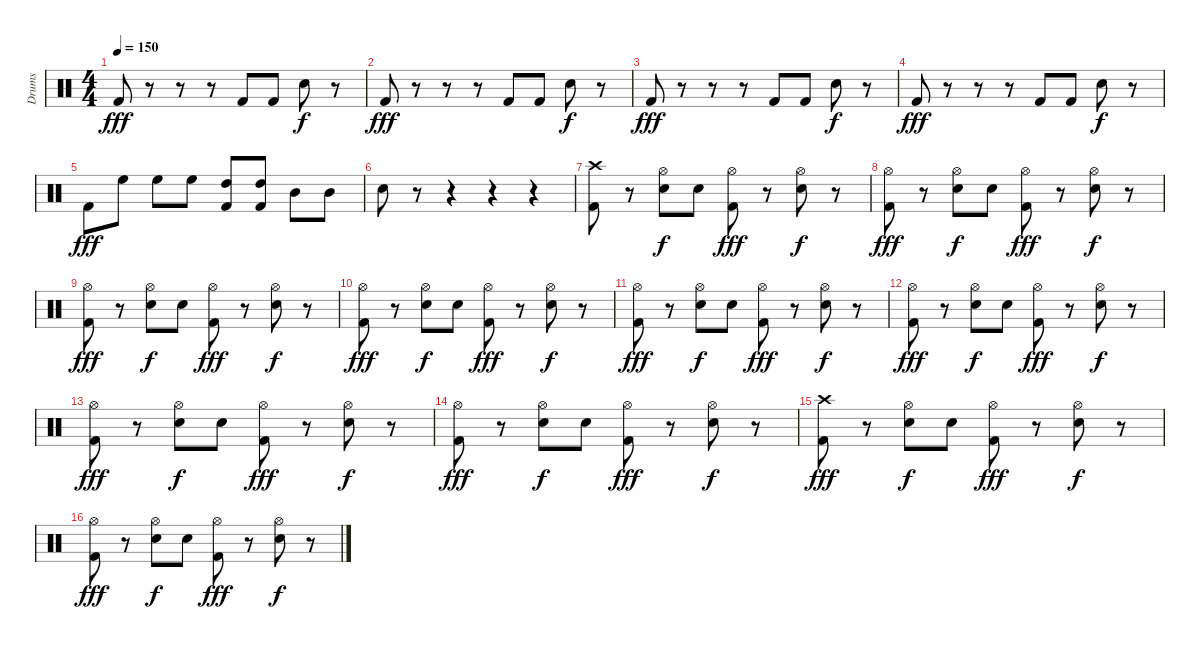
\track ("Drums" "Drums") {instrument percussion}
\staff {score}
\articulation defaults
\ts (4 4)
\tempo 150
\clef neutral
\ks c "Kick (hit) 2".8{dy fff}
r.8 r.8 r.8 "Kick (hit) 2".8 "Kick (hit) 2".8 "Snare (hit) 2".8{dy f} r.8 |
"Kick (hit) 2".8{dy fff} r.8 r.8 r.8 "Kick (hit) 2".8 "Kick (hit) 2".8 "Snare (hit) 2".8{dy f} r.8 |
"Kick (hit) 2".8{dy fff} r.8 r.8 r.8 "Kick (hit) 2".8 "Kick (hit) 2".8 "Snare (hit) 2".8{dy f} r.8 |
"Kick (hit) 2".8{dy fff} r.8 r.8 r.8 "Kick (hit) 2".8 "Kick (hit) 2".8 "Snare (hit) 2".8{dy f} r.8 |
"Kick (hit) 2".8{dy fff} "High Floor Tom (hit)".8 "High Floor Tom (hit)".8 "High Floor Tom (hit)".8 ("High Tom (hit)" "Kick (hit) 2").8 ("High Tom (hit)" "Kick (hit) 2").8 "Mid Tom (hit)".8 "Mid Tom (hit)".8 |
"Snare (hit) 2".8 r.8 r.4 r.4 r.4 |
("Crash high (hit)" "Kick (hit) 2").8 r.8 ("Hi-Hat (open)" "Snare (hit) 2").8{dy f} "Snare (hit) 2".8 ("Hi-Hat (open)" "Kick (hit) 2").8{dy fff} r.8 ("Hi-Hat (open)" "Snare (hit) 2").8{dy f} r.8 |
("Hi-Hat (open)" "Kick (hit) 2").8{dy fff} r.8 ("Hi-Hat (open)" "Snare (hit) 2").8{dy f} "Snare (hit) 2".8 ("Hi-Hat (open)" "Kick (hit) 2").8{dy fff} r.8 ("Hi-Hat (open)" "Snare (hit) 2").8{dy f} r.8 |
("Hi-Hat (open)" "Kick (hit) 2").8{dy fff} r.8 ("Hi-Hat (open)" "Snare (hit) 2").8{dy f} "Snare (hit) 2".8 ("Hi-Hat (open)" "Kick (hit) 2").8{dy fff} r.8 ("Hi-Hat (open)" "Snare (hit) 2").8{dy f} r.8 |
("Hi-Hat (open)" "Kick (hit) 2").8{dy fff} r.8 ("Hi-Hat (open)" "Snare (hit) 2").8{dy f} "Snare (hit) 2".8 ("Hi-Hat (open)" "Kick (hit) 2").8{dy fff} r.8 ("Hi-Hat (open)" "Snare (hit) 2").8{dy f} r.8 |
("Hi-Hat (open)" "Kick (hit) 2").8{dy fff} r.8 ("Hi-Hat (open)" "Snare (hit) 2").8{dy f} "Snare (hit) 2".8 ("Hi-Hat (open)" "Kick (hit) 2").8{dy fff} r.8 ("Hi-Hat (open)" "Snare (hit) 2").8{dy f} r.8 |
("Hi-Hat (open)" "Kick (hit) 2").8{dy fff} r.8 ("Hi-Hat (open)" "Snare (hit) 2").8{dy f} "Snare (hit) 2".8 ("Hi-Hat (open)" "Kick (hit) 2").8{dy fff} r.8 ("Hi-Hat (open)" "Snare (hit) 2").8{dy f} r.8 |
("Hi-Hat (open)" "Kick (hit) 2").8{dy fff} r.8 ("Hi-Hat (open)" "Snare (hit) 2").8{dy f} "Snare (hit) 2".8 ("Hi-Hat (open)" "Kick (hit) 2").8{dy fff} r.8 ("Hi-Hat (open)" "Snare (hit) 2").8{dy f} r.8 |
("Hi-Hat (open)" "Kick (hit) 2").8{dy fff} r.8 ("Hi-Hat (open)" "Snare (hit) 2").8{dy f} "Snare (hit) 2".8 ("Hi-Hat (open)" "Kick (hit) 2").8{dy fff} r.8 ("Hi-Hat (open)" "Snare (hit) 2").8{dy f} r.8 |
("Crash high (hit)" "Kick (hit) 2").8{dy fff} r.8 ("Hi-Hat (open)" "Snare (hit) 2").8{dy f} "Snare (hit) 2".8 ("Hi-Hat (open)" "Kick (hit) 2").8{dy fff} r.8 ("Hi-Hat (open)" "Snare (hit) 2").8{dy f} r.8 |
("Hi-Hat (open)" "Kick (hit) 2").8{dy fff} r.8 ("Hi-Hat (open)" "Snare (hit) 2").8{dy f} "Snare (hit) 2".8 ("Hi-Hat (open)" "Kick (hit) 2").8{dy fff} r.8 ("Hi-Hat (open)" "Snare (hit) 2").8{dy f} r.8
